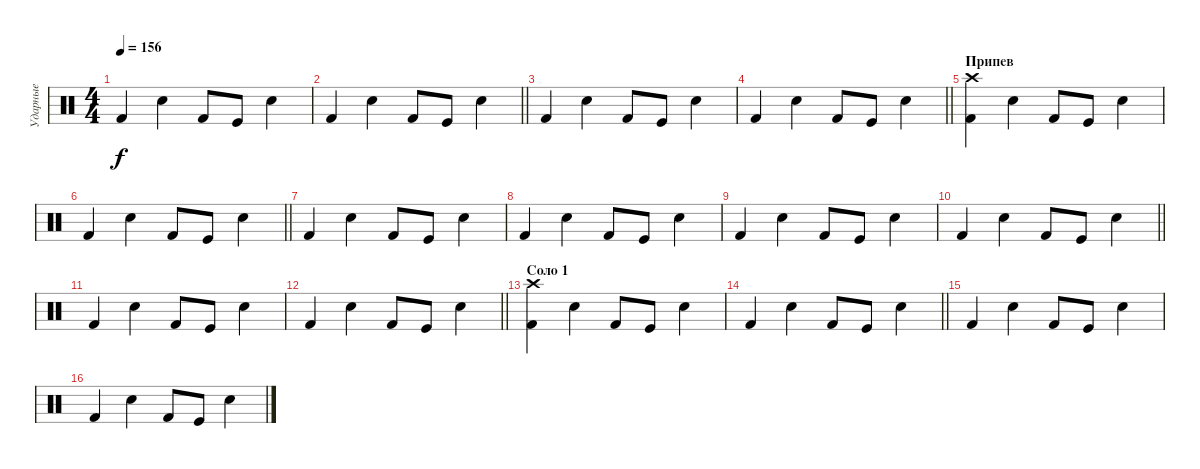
\track ("Ударные" "Ударные") {instrument percussion}
\staff {score}
\articulation defaults
\ts (4 4)
\tempo 156
\clef neutral
\ks c "Kick (hit) 2".4{dy f} "Snare (hit) 2".4 "Kick (hit) 2".8 "Kick (hit)".8 "Snare (hit) 2".4
|
\barLineRight lightlight "Kick (hit) 2".4 "Snare (hit) 2".4 "Kick (hit) 2".8 "Kick (hit)".8 "Snare (hit) 2".4
|
"Kick (hit) 2".4 "Snare (hit) 2".4 "Kick (hit) 2".8 "Kick (hit)".8 "Snare (hit) 2".4 |
\barLineRight lightlight "Kick (hit) 2".4 "Snare (hit) 2".4 "Kick (hit) 2".8 "Kick (hit)".8 "Snare (hit) 2".4
|
\section ("" "Припев")
("Kick (hit) 2" "Crash high (hit)").4 "Snare (hit) 2".4 "Kick (hit) 2".8 "Kick (hit)".8 "Snare (hit) 2".4 |
\barLineRight lightlight "Kick (hit) 2".4 "Snare (hit) 2".4 "Kick (hit) 2".8 "Kick (hit)".8 "Snare (hit) 2".4
|
"Kick (hit) 2".4 "Snare (hit) 2".4 "Kick (hit) 2".8 "Kick (hit)".8 "Snare (hit) 2".4 |
"Kick (hit) 2".4 "Snare (hit) 2".4 "Kick (hit) 2".8 "Kick (hit)".8 "Snare (hit) 2".4 |
"Kick (hit) 2".4 "Snare (hit) 2".4 "Kick (hit) 2".8 "Kick (hit)".8 "Snare (hit) 2".4 |
\barLineRight lightlight "Kick (hit) 2".4 "Snare (hit) 2".4 "Kick (hit) 2".8 "Kick (hit)".8 "Snare (hit) 2".4
|
"Kick (hit) 2".4 "Snare (hit) 2".4 "Kick (hit) 2".8 "Kick (hit)".8 "Snare (hit) 2".4 |
\barLineRight lightlight "Kick (hit) 2".4 "Snare (hit) 2".4 "Kick (hit) 2".8 "Kick (hit)".8 "Snare (hit) 2".4
|
\section ("" "Соло 1")
("Kick (hit) 2" "Crash high (hit)").4 "Snare (hit) 2".4 "Kick (hit) 2".8 "Kick (hit)".8 "Snare (hit) 2".4 |
\barLineRight lightlight "Kick (hit) 2".4 "Snare (hit) 2".4 "Kick (hit) 2".8 "Kick (hit)".8 "Snare (hit) 2".4
|
"Kick (hit) 2".4 "Snare (hit) 2".4 "Kick (hit) 2".8 "Kick (hit)".8 "Snare (hit) 2".4 |
"Kick (hit) 2".4 "Snare (hit) 2".4 "Kick (hit) 2".8 "Kick (hit)".8 "Snare (hit) 2".4
